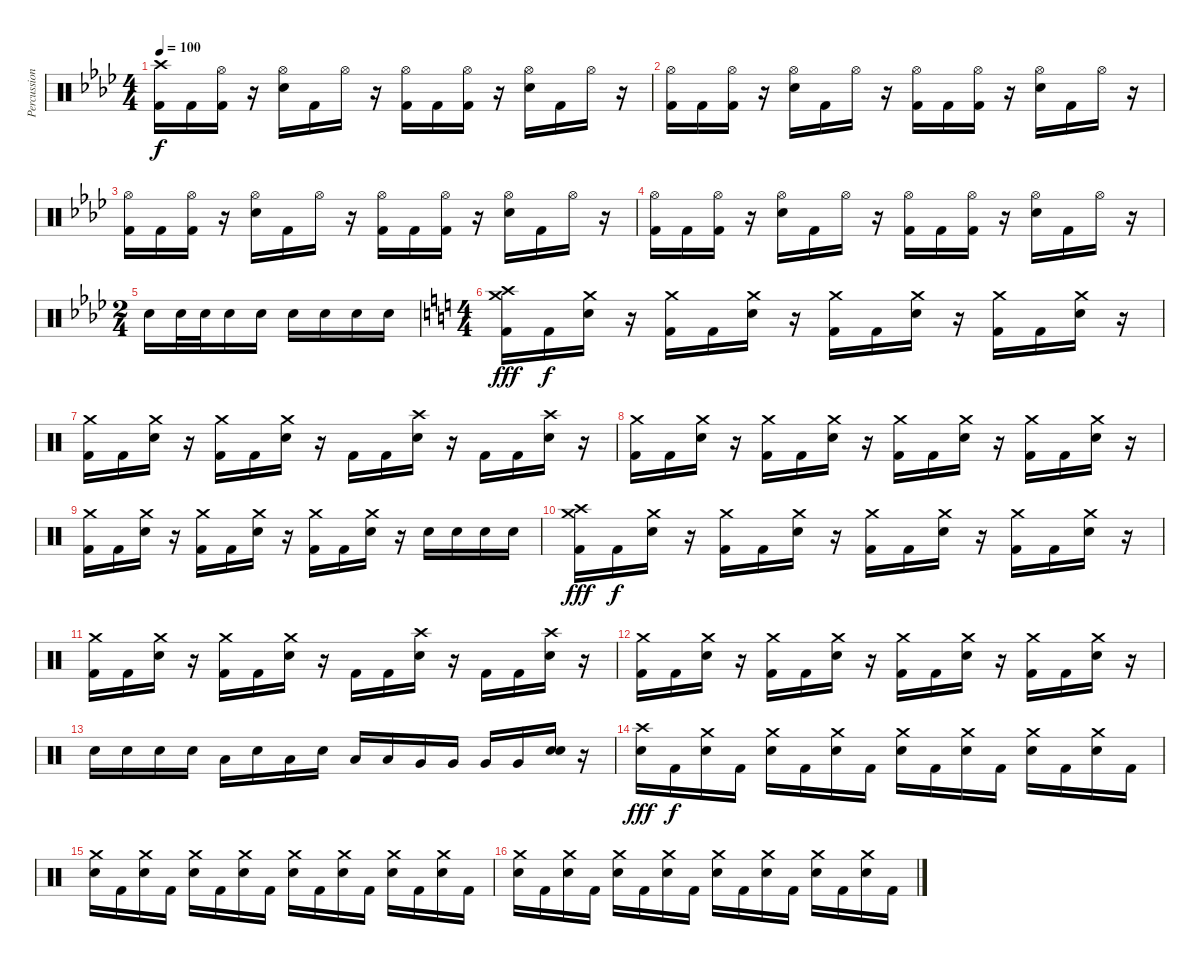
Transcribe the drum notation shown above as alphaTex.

\track ("Percussion" "Percussion") {instrument percussion}
\staff {score}
\articulation defaults
\ts (4 4)
\tempo 100
\clef neutral
\ks ab
("Crash high (hit)" "Kick (hit) 2").16{dy f} "Kick (hit) 2".16 ("Hi-Hat (open)" "Kick (hit) 2").16 r.16 ("Hi-Hat (open)" "Snare (hit) 2").16 "Kick (hit) 2".16 "Hi-Hat (open)".16 r.16 ("Hi-Hat (open)" "Kick (hit) 2").16 "Kick (hit) 2".16 ("Hi-Hat (open)" "Kick (hit) 2").16 r.16 ("Hi-Hat (open)" "Snare (hit) 2").16 "Kick (hit) 2".16 "Hi-Hat (open)".16 r.16 |
("Hi-Hat (open)" "Kick (hit) 2").16 "Kick (hit) 2".16 ("Hi-Hat (open)" "Kick (hit) 2").16 r.16 ("Hi-Hat (open)" "Snare (hit) 2").16 "Kick (hit) 2".16 "Hi-Hat (open)".16 r.16 ("Hi-Hat (open)" "Kick (hit) 2").16 "Kick (hit) 2".16 ("Hi-Hat (open)" "Kick (hit) 2").16 r.16 ("Hi-Hat (open)" "Snare (hit) 2").16 "Kick (hit) 2".16 "Hi-Hat (open)".16 r.16 |
("Hi-Hat (open)" "Kick (hit) 2").16 "Kick (hit) 2".16 ("Hi-Hat (open)" "Kick (hit) 2").16 r.16 ("Hi-Hat (open)" "Snare (hit) 2").16 "Kick (hit) 2".16 "Hi-Hat (open)".16 r.16 ("Hi-Hat (open)" "Kick (hit) 2").16 "Kick (hit) 2".16 ("Hi-Hat (open)" "Kick (hit) 2").16 r.16 ("Hi-Hat (open)" "Snare (hit) 2").16 "Kick (hit) 2".16 "Hi-Hat (open)".16 r.16 |
("Hi-Hat (open)" "Kick (hit) 2").16 "Kick (hit) 2".16 ("Hi-Hat (open)" "Kick (hit) 2").16 r.16 ("Hi-Hat (open)" "Snare (hit) 2").16 "Kick (hit) 2".16 "Hi-Hat (open)".16 r.16 ("Hi-Hat (open)" "Kick (hit) 2").16 "Kick (hit) 2".16 ("Hi-Hat (open)" "Kick (hit) 2").16 r.16 ("Hi-Hat (open)" "Snare (hit) 2").16 "Kick (hit) 2".16 "Hi-Hat (open)".16 r.16 |
\ts (2 4)
"Electric Snare (hit)".16 "Electric Snare (hit)".32 "Electric Snare (hit)".32 "Electric Snare (hit)".16 "Electric Snare (hit)".16 "Electric Snare (hit)".16 "Electric Snare (hit)".16 "Electric Snare (hit)".16 "Electric Snare (hit)".16 |
\ts (4 4)
\ks c
("Crash high (hit)" "Crash medium (hit)" "Kick (hit) 2").16{dy fff} "Kick (hit) 2".16{dy f} ("Crash medium (hit)" "Snare (hit) 2").16 r.16 ("Crash medium (hit)" "Kick (hit) 2").16 "Kick (hit) 2".16 ("Crash medium (hit)" "Snare (hit) 2").16 r.16 ("Crash medium (hit)" "Kick (hit) 2").16 "Kick (hit) 2".16 ("Crash medium (hit)" "Snare (hit) 2").16 r.16 ("Crash medium (hit)" "Kick (hit) 2").16 "Kick (hit) 2".16 ("Crash medium (hit)" "Snare (hit) 2").16 r.16 |
("Crash medium (hit)" "Kick (hit) 2").16 "Kick (hit) 2".16 ("Crash medium (hit)" "Snare (hit) 2").16 r.16 ("Crash medium (hit)" "Kick (hit) 2").16 "Kick (hit) 2".16 ("Crash medium (hit)" "Snare (hit) 2").16 r.16 "Kick (hit) 2".16 "Kick (hit) 2".16 ("Crash high (hit)" "Snare (hit) 2").16 r.16 "Kick (hit) 2".16 "Kick (hit) 2".16 ("Crash high (hit)" "Snare (hit) 2").16 r.16 |
("Crash medium (hit)" "Kick (hit) 2").16 "Kick (hit) 2".16 ("Crash medium (hit)" "Snare (hit) 2").16 r.16 ("Crash medium (hit)" "Kick (hit) 2").16 "Kick (hit) 2".16 ("Crash medium (hit)" "Snare (hit) 2").16 r.16 ("Crash medium (hit)" "Kick (hit) 2").16 "Kick (hit) 2".16 ("Crash medium (hit)" "Snare (hit) 2").16 r.16 ("Crash medium (hit)" "Kick (hit) 2").16 "Kick (hit) 2".16 ("Crash medium (hit)" "Snare (hit) 2").16 r.16 |
("Crash medium (hit)" "Kick (hit) 2").16 "Kick (hit) 2".16 ("Crash medium (hit)" "Snare (hit) 2").16 r.16 ("Crash medium (hit)" "Kick (hit) 2").16 "Kick (hit) 2".16 ("Crash medium (hit)" "Snare (hit) 2").16 r.16 ("Crash medium (hit)" "Kick (hit) 2").16 "Kick (hit) 2".16 ("Crash medium (hit)" "Snare (hit) 2").16 r.16 "Snare (hit) 2".16 "Snare (hit) 2".16 "Snare (hit) 2".16 "Snare (hit) 2".16 |
("Crash high (hit)" "Crash medium (hit)" "Kick (hit) 2").16{dy fff} "Kick (hit) 2".16{dy f} ("Crash medium (hit)" "Snare (hit) 2").16 r.16 ("Crash medium (hit)" "Kick (hit) 2").16 "Kick (hit) 2".16 ("Crash medium (hit)" "Snare (hit) 2").16 r.16 ("Crash medium (hit)" "Kick (hit) 2").16 "Kick (hit) 2".16 ("Crash medium (hit)" "Snare (hit) 2").16 r.16 ("Crash medium (hit)" "Kick (hit) 2").16 "Kick (hit) 2".16 ("Crash medium (hit)" "Snare (hit) 2").16 r.16 |
("Crash medium (hit)" "Kick (hit) 2").16 "Kick (hit) 2".16 ("Crash medium (hit)" "Snare (hit) 2").16 r.16 ("Crash medium (hit)" "Kick (hit) 2").16 "Kick (hit) 2".16 ("Crash medium (hit)" "Snare (hit) 2").16 r.16 "Kick (hit) 2".16 "Kick (hit) 2".16 ("Crash high (hit)" "Snare (hit) 2").16 r.16 "Kick (hit) 2".16 "Kick (hit) 2".16 ("Crash high (hit)" "Snare (hit) 2").16 r.16 |
("Crash medium (hit)" "Kick (hit) 2").16 "Kick (hit) 2".16 ("Crash medium (hit)" "Snare (hit) 2").16 r.16 ("Crash medium (hit)" "Kick (hit) 2").16 "Kick (hit) 2".16 ("Crash medium (hit)" "Snare (hit) 2").16 r.16 ("Crash medium (hit)" "Kick (hit) 2").16 "Kick (hit) 2".16 ("Crash medium (hit)" "Snare (hit) 2").16 r.16 ("Crash medium (hit)" "Kick (hit) 2").16 "Kick (hit) 2".16 ("Crash medium (hit)" "Snare (hit) 2").16 r.16 |
"Snare (hit) 2".16 "Snare (hit) 2".16 "Snare (hit) 2".16 "Snare (hit) 2".16 "Low Tom (hit)".16 "Snare (hit) 2".16 "Low Tom (hit)".16 "Snare (hit) 2".16 "Low Tom (hit)".16 "Low Tom (hit)".16 "Very Low Tom (hit)".16 "Very Low Tom (hit)".16 "Very Low Tom (hit)".16 "Very Low Tom (hit)".16 ("Snare (hit) 2" "Snare (hit) 2").16 r.16 |
("Crash high (hit)" "Snare (hit) 2").16{dy fff} "Kick (hit) 2".16{dy f} ("Crash medium (hit)" "Snare (hit) 2").16 "Kick (hit) 2".16 ("Crash medium (hit)" "Snare (hit) 2").16 "Kick (hit) 2".16 ("Crash medium (hit)" "Snare (hit) 2").16 "Kick (hit) 2".16 ("Crash medium (hit)" "Snare (hit) 2").16 "Kick (hit) 2".16 ("Crash medium (hit)" "Snare (hit) 2").16 "Kick (hit) 2".16 ("Crash medium (hit)" "Snare (hit) 2").16 "Kick (hit) 2".16 ("Crash medium (hit)" "Snare (hit) 2").16 "Kick (hit) 2".16 |
("Crash medium (hit)" "Snare (hit) 2").16 "Kick (hit) 2".16 ("Crash medium (hit)" "Snare (hit) 2").16 "Kick (hit) 2".16 ("Crash medium (hit)" "Snare (hit) 2").16 "Kick (hit) 2".16 ("Crash medium (hit)" "Snare (hit) 2").16 "Kick (hit) 2".16 ("Crash medium (hit)" "Snare (hit) 2").16 "Kick (hit) 2".16 ("Crash medium (hit)" "Snare (hit) 2").16 "Kick (hit) 2".16 ("Crash medium (hit)" "Snare (hit) 2").16 "Kick (hit) 2".16 ("Crash medium (hit)" "Snare (hit) 2").16 "Kick (hit) 2".16 |
("Crash medium (hit)" "Snare (hit) 2").16 "Kick (hit) 2".16 ("Crash medium (hit)" "Snare (hit) 2").16 "Kick (hit) 2".16 ("Crash medium (hit)" "Snare (hit) 2").16 "Kick (hit) 2".16 ("Crash medium (hit)" "Snare (hit) 2").16 "Kick (hit) 2".16 ("Crash medium (hit)" "Snare (hit) 2").16 "Kick (hit) 2".16 ("Crash medium (hit)" "Snare (hit) 2").16 "Kick (hit) 2".16 ("Crash medium (hit)" "Snare (hit) 2").16 "Kick (hit) 2".16 ("Crash medium (hit)" "Snare (hit) 2").16 "Kick (hit) 2".16
